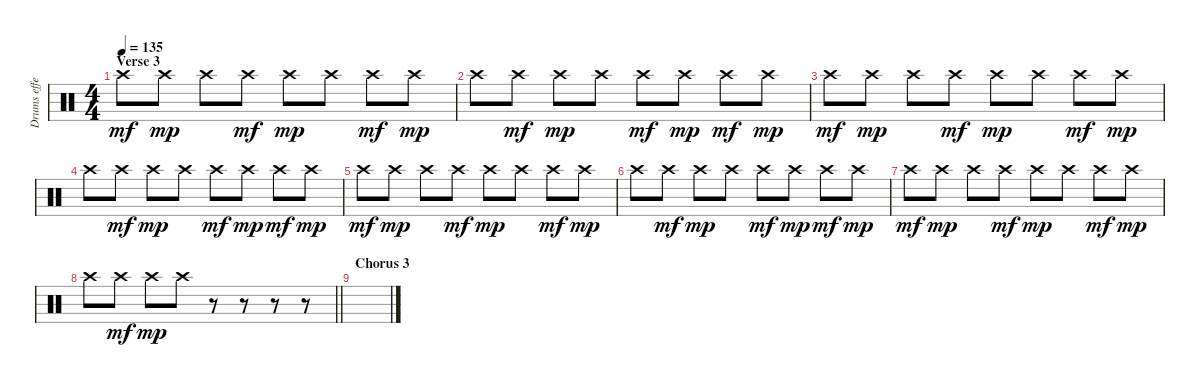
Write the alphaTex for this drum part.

\track ("Drums effects" "Drums effe") {instrument percussion}
\staff {score}
\articulation defaults
\ts (4 4)
\section ("" "Verse 3")
\tempo 135
\clef neutral
\ks c "Crash high (hit)".8{dy mf volume 5} "Crash high (hit)".8{dy mp} "Crash high (hit)".8 "Crash high (hit)".8{dy mf} "Crash high (hit)".8{dy mp} "Crash high (hit)".8 "Crash high (hit)".8{dy mf} "Crash high (hit)".8{dy mp}
|
"Crash high (hit)".8{volume 5} "Crash high (hit)".8{dy mf} "Crash high (hit)".8{dy mp} "Crash high (hit)".8 "Crash high (hit)".8{dy mf} "Crash high (hit)".8{dy mp} "Crash high (hit)".8{dy mf} "Crash high (hit)".8{dy mp} |
"Crash high (hit)".8{dy mf volume 5} "Crash high (hit)".8{dy mp} "Crash high (hit)".8 "Crash high (hit)".8{dy mf} "Crash high (hit)".8{dy mp} "Crash high (hit)".8 "Crash high (hit)".8{dy mf} "Crash high (hit)".8{dy mp} |
"Crash high (hit)".8{volume 5} "Crash high (hit)".8{dy mf} "Crash high (hit)".8{dy mp} "Crash high (hit)".8 "Crash high (hit)".8{dy mf} "Crash high (hit)".8{dy mp} "Crash high (hit)".8{dy mf} "Crash high (hit)".8{dy mp} |
"Crash high (hit)".8{dy mf volume 5} "Crash high (hit)".8{dy mp} "Crash high (hit)".8 "Crash high (hit)".8{dy mf} "Crash high (hit)".8{dy mp} "Crash high (hit)".8 "Crash high (hit)".8{dy mf} "Crash high (hit)".8{dy mp} |
"Crash high (hit)".8{volume 5} "Crash high (hit)".8{dy mf} "Crash high (hit)".8{dy mp} "Crash high (hit)".8 "Crash high (hit)".8{dy mf} "Crash high (hit)".8{dy mp} "Crash high (hit)".8{dy mf} "Crash high (hit)".8{dy mp} |
"Crash high (hit)".8{dy mf volume 5} "Crash high (hit)".8{dy mp} "Crash high (hit)".8 "Crash high (hit)".8{dy mf} "Crash high (hit)".8{dy mp} "Crash high (hit)".8 "Crash high (hit)".8{dy mf} "Crash high (hit)".8{dy mp} |
\barLineRight lightlight "Crash high (hit)".8{volume 5} "Crash high (hit)".8{dy mf} "Crash high (hit)".8{dy mp} "Crash high (hit)".8
r.8 r.8 r.8 r.8 |
\section ("" "Chorus 3")
